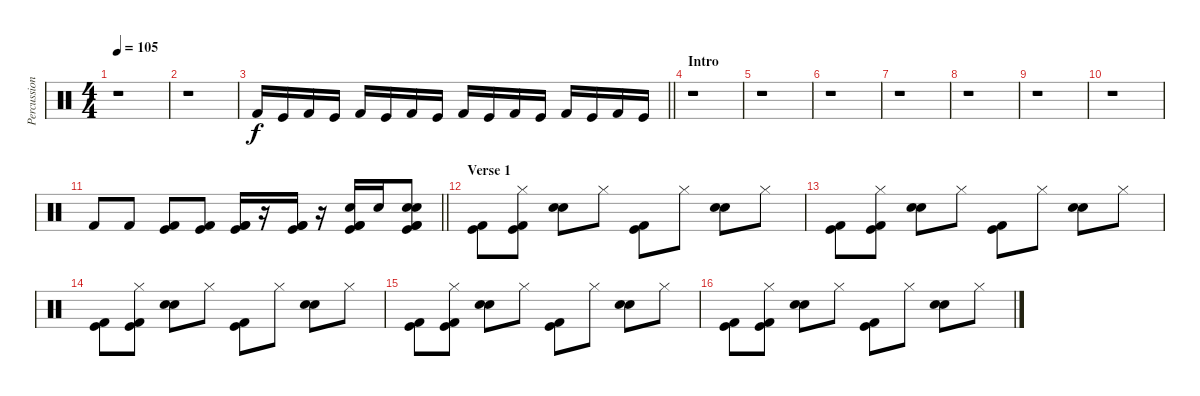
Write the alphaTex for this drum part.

\track ("Percussion" "Percussion") {instrument percussion}
\staff {score}
\articulation defaults
\ts (4 4)
\tempo 105
\clef neutral
\ks c
r.1{dy f} |
r.1 |
\barLineRight lightlight "Kick (hit) 2".16 "Kick (hit)".16 "Kick (hit) 2".16 "Kick (hit)".16 "Kick (hit) 2".16 "Kick (hit)".16 "Kick (hit) 2".16 "Kick (hit)".16 "Kick (hit) 2".16 "Kick (hit)".16 "Kick (hit) 2".16 "Kick (hit)".16 "Kick (hit) 2".16 "Kick (hit)".16 "Kick (hit) 2".16 "Kick (hit)".16
|
\section ("" "Intro")
r.1 |
r.1 |
r.1 |
r.1 |
r.1 |
r.1 |
r.1 |
\barLineRight lightlight "Kick (hit) 2".8 "Kick (hit) 2".8
("Kick (hit)" "Kick (hit) 2").8 ("Kick (hit)" "Kick (hit) 2").8 ("Kick (hit) 2" "Kick (hit)" "Kick (hit) 2").16 r.16 ("Kick (hit) 2" "Kick (hit)" "Kick (hit) 2").16 r.16 ("Snare (hit) 2" "Kick (hit) 2" "Kick (hit)" "Kick (hit) 2").16 "Snare (hit) 2".16 ("Electric Snare (hit)" "Snare (hit) 2" "Kick (hit) 2" "Kick (hit)" "Kick (hit) 2").8 |
\section ("" "Verse 1")
("Kick (hit) 2" "Kick (hit)").8 ("Hi-Hat (closed)" "Kick (hit) 2" "Kick (hit)").8 ("Hand Clap (hit)" "Electric Snare (hit)").8 "Hi-Hat (closed)".8 ("Kick (hit) 2" "Kick (hit)").8 "Hi-Hat (closed)".8 ("Hand Clap (hit)" "Electric Snare (hit)").8 "Hi-Hat (closed)".8 |
("Kick (hit) 2" "Kick (hit)").8 ("Hi-Hat (closed)" "Kick (hit) 2" "Kick (hit)").8 ("Hand Clap (hit)" "Electric Snare (hit)").8 "Hi-Hat (closed)".8 ("Kick (hit) 2" "Kick (hit)").8 "Hi-Hat (closed)".8 ("Hand Clap (hit)" "Electric Snare (hit)").8 "Hi-Hat (closed)".8 |
("Kick (hit) 2" "Kick (hit)").8 ("Hi-Hat (closed)" "Kick (hit) 2" "Kick (hit)").8 ("Hand Clap (hit)" "Electric Snare (hit)").8 "Hi-Hat (closed)".8 ("Kick (hit) 2" "Kick (hit)").8 "Hi-Hat (closed)".8 ("Hand Clap (hit)" "Electric Snare (hit)").8 "Hi-Hat (closed)".8 |
("Kick (hit) 2" "Kick (hit)").8 ("Hi-Hat (closed)" "Kick (hit) 2" "Kick (hit)").8 ("Hand Clap (hit)" "Electric Snare (hit)").8 "Hi-Hat (closed)".8 ("Kick (hit) 2" "Kick (hit)").8 "Hi-Hat (closed)".8 ("Hand Clap (hit)" "Electric Snare (hit)").8 "Hi-Hat (closed)".8 |
("Kick (hit) 2" "Kick (hit)").8 ("Hi-Hat (closed)" "Kick (hit) 2" "Kick (hit)").8 ("Hand Clap (hit)" "Electric Snare (hit)").8 "Hi-Hat (closed)".8 ("Kick (hit) 2" "Kick (hit)").8 "Hi-Hat (closed)".8 ("Hand Clap (hit)" "Electric Snare (hit)").8 "Hi-Hat (closed)".8
